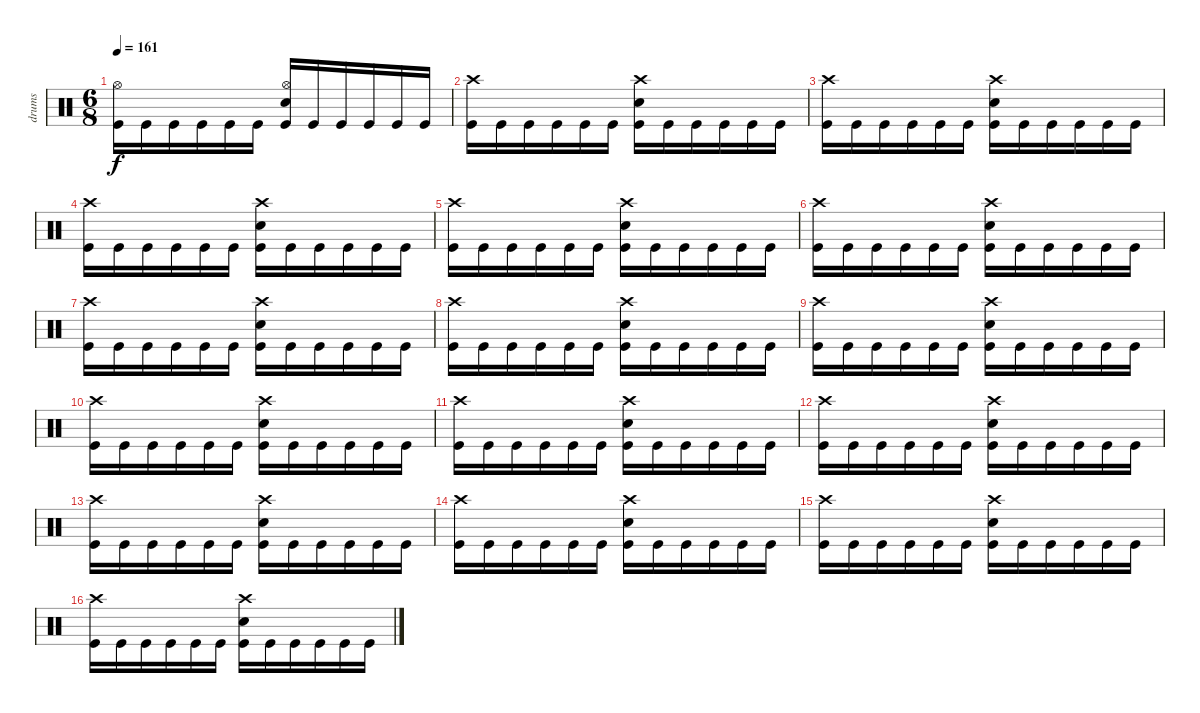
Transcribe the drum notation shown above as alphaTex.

\track ("drums" "drums") {instrument percussion}
\staff {score}
\articulation defaults
\ts (6 8)
\tempo 161
\clef neutral
\ks c
("Kick (hit)" "Hi-Hat (open)").16{dy f} "Kick (hit)".16 "Kick (hit)".16 "Kick (hit)".16 "Kick (hit)".16 "Kick (hit)".16 ("Kick (hit)" "Electric Snare (hit)" "Hi-Hat (open)").16 "Kick (hit)".16 "Kick (hit)".16 "Kick (hit)".16 "Kick (hit)".16 "Kick (hit)".16 |
("Kick (hit)" "Crash high (hit)").16 "Kick (hit)".16 "Kick (hit)".16 "Kick (hit)".16 "Kick (hit)".16 "Kick (hit)".16 ("Kick (hit)" "Electric Snare (hit)" "Crash high (hit)").16 "Kick (hit)".16 "Kick (hit)".16 "Kick (hit)".16 "Kick (hit)".16 "Kick (hit)".16 |
("Kick (hit)" "Crash high (hit)").16 "Kick (hit)".16 "Kick (hit)".16 "Kick (hit)".16 "Kick (hit)".16 "Kick (hit)".16 ("Kick (hit)" "Electric Snare (hit)" "Crash high (hit)").16 "Kick (hit)".16 "Kick (hit)".16 "Kick (hit)".16 "Kick (hit)".16 "Kick (hit)".16 |
("Kick (hit)" "Crash high (hit)").16 "Kick (hit)".16 "Kick (hit)".16 "Kick (hit)".16 "Kick (hit)".16 "Kick (hit)".16 ("Kick (hit)" "Electric Snare (hit)" "Crash high (hit)").16 "Kick (hit)".16 "Kick (hit)".16 "Kick (hit)".16 "Kick (hit)".16 "Kick (hit)".16 |
("Kick (hit)" "Crash high (hit)").16 "Kick (hit)".16 "Kick (hit)".16 "Kick (hit)".16 "Kick (hit)".16 "Kick (hit)".16 ("Kick (hit)" "Electric Snare (hit)" "Crash high (hit)").16 "Kick (hit)".16 "Kick (hit)".16 "Kick (hit)".16 "Kick (hit)".16 "Kick (hit)".16 |
("Kick (hit)" "Crash high (hit)").16 "Kick (hit)".16 "Kick (hit)".16 "Kick (hit)".16 "Kick (hit)".16 "Kick (hit)".16 ("Kick (hit)" "Electric Snare (hit)" "Crash high (hit)").16 "Kick (hit)".16 "Kick (hit)".16 "Kick (hit)".16 "Kick (hit)".16 "Kick (hit)".16 |
("Kick (hit)" "Crash high (hit)").16 "Kick (hit)".16 "Kick (hit)".16 "Kick (hit)".16 "Kick (hit)".16 "Kick (hit)".16 ("Kick (hit)" "Electric Snare (hit)" "Crash high (hit)").16 "Kick (hit)".16 "Kick (hit)".16 "Kick (hit)".16 "Kick (hit)".16 "Kick (hit)".16 |
("Kick (hit)" "Crash high (hit)").16 "Kick (hit)".16 "Kick (hit)".16 "Kick (hit)".16 "Kick (hit)".16 "Kick (hit)".16 ("Kick (hit)" "Electric Snare (hit)" "Crash high (hit)").16 "Kick (hit)".16 "Kick (hit)".16 "Kick (hit)".16 "Kick (hit)".16 "Kick (hit)".16 |
("Kick (hit)" "Crash high (hit)").16 "Kick (hit)".16 "Kick (hit)".16 "Kick (hit)".16 "Kick (hit)".16 "Kick (hit)".16 ("Kick (hit)" "Electric Snare (hit)" "Crash high (hit)").16 "Kick (hit)".16 "Kick (hit)".16 "Kick (hit)".16 "Kick (hit)".16 "Kick (hit)".16 |
("Kick (hit)" "Crash high (hit)").16 "Kick (hit)".16 "Kick (hit)".16 "Kick (hit)".16 "Kick (hit)".16 "Kick (hit)".16 ("Kick (hit)" "Electric Snare (hit)" "Crash high (hit)").16 "Kick (hit)".16 "Kick (hit)".16 "Kick (hit)".16 "Kick (hit)".16 "Kick (hit)".16 |
("Kick (hit)" "Crash high (hit)").16 "Kick (hit)".16 "Kick (hit)".16 "Kick (hit)".16 "Kick (hit)".16 "Kick (hit)".16 ("Kick (hit)" "Electric Snare (hit)" "Crash high (hit)").16 "Kick (hit)".16 "Kick (hit)".16 "Kick (hit)".16 "Kick (hit)".16 "Kick (hit)".16 |
("Kick (hit)" "Crash high (hit)").16 "Kick (hit)".16 "Kick (hit)".16 "Kick (hit)".16 "Kick (hit)".16 "Kick (hit)".16 ("Kick (hit)" "Electric Snare (hit)" "Crash high (hit)").16 "Kick (hit)".16 "Kick (hit)".16 "Kick (hit)".16 "Kick (hit)".16 "Kick (hit)".16 |
("Kick (hit)" "Crash high (hit)").16 "Kick (hit)".16 "Kick (hit)".16 "Kick (hit)".16 "Kick (hit)".16 "Kick (hit)".16 ("Kick (hit)" "Electric Snare (hit)" "Crash high (hit)").16 "Kick (hit)".16 "Kick (hit)".16 "Kick (hit)".16 "Kick (hit)".16 "Kick (hit)".16 |
("Kick (hit)" "Crash high (hit)").16 "Kick (hit)".16 "Kick (hit)".16 "Kick (hit)".16 "Kick (hit)".16 "Kick (hit)".16 ("Kick (hit)" "Electric Snare (hit)" "Crash high (hit)").16 "Kick (hit)".16 "Kick (hit)".16 "Kick (hit)".16 "Kick (hit)".16 "Kick (hit)".16 |
("Kick (hit)" "Crash high (hit)").16 "Kick (hit)".16 "Kick (hit)".16 "Kick (hit)".16 "Kick (hit)".16 "Kick (hit)".16 ("Kick (hit)" "Electric Snare (hit)" "Crash high (hit)").16 "Kick (hit)".16 "Kick (hit)".16 "Kick (hit)".16 "Kick (hit)".16 "Kick (hit)".16 |
("Kick (hit)" "Crash high (hit)").16 "Kick (hit)".16 "Kick (hit)".16 "Kick (hit)".16 "Kick (hit)".16 "Kick (hit)".16 ("Kick (hit)" "Electric Snare (hit)" "Crash high (hit)").16 "Kick (hit)".16 "Kick (hit)".16 "Kick (hit)".16 "Kick (hit)".16 "Kick (hit)".16
